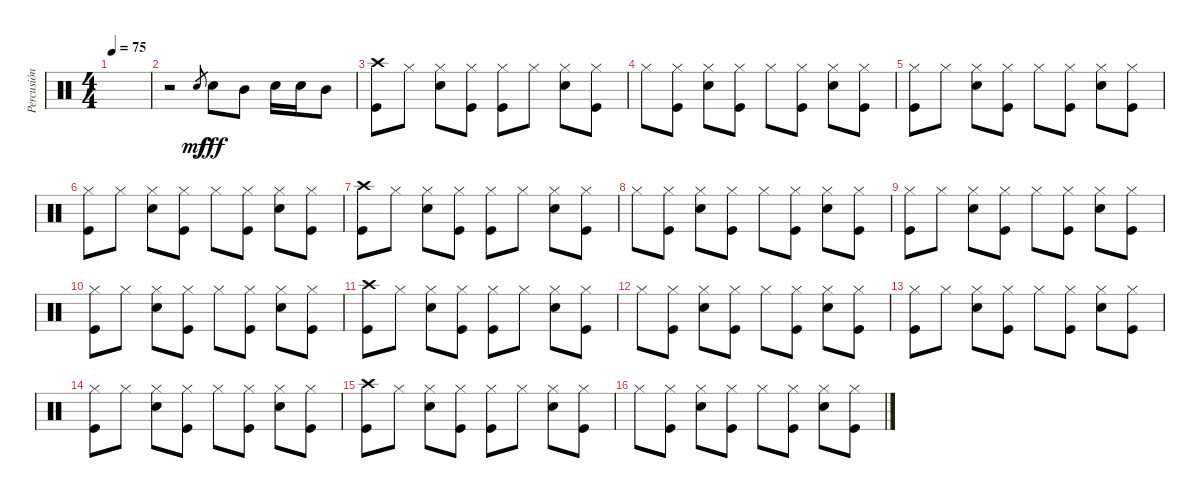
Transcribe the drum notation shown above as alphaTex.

\track ("Percusión" "Percusión") {instrument percussion}
\staff {score}
\articulation defaults
\ts (4 4)
\tempo 75
\clef neutral
\ks c
|
r.2 "Snare (hit) 2"{h}.8{gr dy mf} "Snare (hit) 2".8{dy fff} "Mid Tom (hit)".8 "Snare (hit) 2".16 "Snare (hit) 2".16 "Mid Tom (hit)".8 |
("Crash high (hit)" "Kick (hit)").8 "Hi-Hat (closed)".8 ("Hi-Hat (closed)" "Snare (hit) 2").8 ("Hi-Hat (closed)" "Kick (hit)").8 ("Hi-Hat (closed)" "Kick (hit)").8 "Hi-Hat (closed)".8 ("Hi-Hat (closed)" "Snare (hit) 2").8 ("Hi-Hat (closed)" "Kick (hit)").8 |
"Hi-Hat (closed)".8 ("Hi-Hat (closed)" "Kick (hit)").8 ("Hi-Hat (closed)" "Snare (hit) 2").8 ("Hi-Hat (closed)" "Kick (hit)").8 "Hi-Hat (closed)".8 ("Hi-Hat (closed)" "Kick (hit)").8 ("Hi-Hat (closed)" "Snare (hit) 2").8 ("Hi-Hat (closed)" "Kick (hit)").8 |
("Hi-Hat (closed)" "Kick (hit)").8 "Hi-Hat (closed)".8 ("Hi-Hat (closed)" "Snare (hit) 2").8 ("Hi-Hat (closed)" "Kick (hit)").8 "Hi-Hat (closed)".8 ("Hi-Hat (closed)" "Kick (hit)").8 ("Hi-Hat (closed)" "Snare (hit) 2").8 ("Hi-Hat (closed)" "Kick (hit)").8 |
("Hi-Hat (closed)" "Kick (hit)").8 "Hi-Hat (closed)".8 ("Hi-Hat (closed)" "Snare (hit) 2").8 ("Hi-Hat (closed)" "Kick (hit)").8 "Hi-Hat (closed)".8 ("Hi-Hat (closed)" "Kick (hit)").8 ("Hi-Hat (closed)" "Snare (hit) 2").8 ("Hi-Hat (closed)" "Kick (hit)").8 |
("Crash high (hit)" "Kick (hit)").8 "Hi-Hat (closed)".8 ("Hi-Hat (closed)" "Snare (hit) 2").8 ("Hi-Hat (closed)" "Kick (hit)").8 ("Hi-Hat (closed)" "Kick (hit)").8 "Hi-Hat (closed)".8 ("Hi-Hat (closed)" "Snare (hit) 2").8 ("Hi-Hat (closed)" "Kick (hit)").8 |
"Hi-Hat (closed)".8 ("Hi-Hat (closed)" "Kick (hit)").8 ("Hi-Hat (closed)" "Snare (hit) 2").8 ("Hi-Hat (closed)" "Kick (hit)").8 "Hi-Hat (closed)".8 ("Hi-Hat (closed)" "Kick (hit)").8 ("Hi-Hat (closed)" "Snare (hit) 2").8 ("Hi-Hat (closed)" "Kick (hit)").8 |
("Hi-Hat (closed)" "Kick (hit)").8 "Hi-Hat (closed)".8 ("Hi-Hat (closed)" "Snare (hit) 2").8 ("Hi-Hat (closed)" "Kick (hit)").8 "Hi-Hat (closed)".8 ("Hi-Hat (closed)" "Kick (hit)").8 ("Hi-Hat (closed)" "Snare (hit) 2").8 ("Hi-Hat (closed)" "Kick (hit)").8 |
("Hi-Hat (closed)" "Kick (hit)").8 "Hi-Hat (closed)".8 ("Hi-Hat (closed)" "Snare (hit) 2").8 ("Hi-Hat (closed)" "Kick (hit)").8 "Hi-Hat (closed)".8 ("Hi-Hat (closed)" "Kick (hit)").8 ("Hi-Hat (closed)" "Snare (hit) 2").8 ("Hi-Hat (closed)" "Kick (hit)").8 |
("Crash high (hit)" "Kick (hit)").8 "Hi-Hat (closed)".8 ("Hi-Hat (closed)" "Snare (hit) 2").8 ("Hi-Hat (closed)" "Kick (hit)").8 ("Hi-Hat (closed)" "Kick (hit)").8 "Hi-Hat (closed)".8 ("Hi-Hat (closed)" "Snare (hit) 2").8 ("Hi-Hat (closed)" "Kick (hit)").8 |
"Hi-Hat (closed)".8 ("Hi-Hat (closed)" "Kick (hit)").8 ("Hi-Hat (closed)" "Snare (hit) 2").8 ("Hi-Hat (closed)" "Kick (hit)").8 "Hi-Hat (closed)".8 ("Hi-Hat (closed)" "Kick (hit)").8 ("Hi-Hat (closed)" "Snare (hit) 2").8 ("Hi-Hat (closed)" "Kick (hit)").8 |
("Hi-Hat (closed)" "Kick (hit)").8 "Hi-Hat (closed)".8 ("Hi-Hat (closed)" "Snare (hit) 2").8 ("Hi-Hat (closed)" "Kick (hit)").8 "Hi-Hat (closed)".8 ("Hi-Hat (closed)" "Kick (hit)").8 ("Hi-Hat (closed)" "Snare (hit) 2").8 ("Hi-Hat (closed)" "Kick (hit)").8 |
("Hi-Hat (closed)" "Kick (hit)").8 "Hi-Hat (closed)".8 ("Hi-Hat (closed)" "Snare (hit) 2").8 ("Hi-Hat (closed)" "Kick (hit)").8 "Hi-Hat (closed)".8 ("Hi-Hat (closed)" "Kick (hit)").8 ("Hi-Hat (closed)" "Snare (hit) 2").8 ("Hi-Hat (closed)" "Kick (hit)").8 |
("Crash high (hit)" "Kick (hit)").8 "Hi-Hat (closed)".8 ("Hi-Hat (closed)" "Snare (hit) 2").8 ("Hi-Hat (closed)" "Kick (hit)").8 ("Hi-Hat (closed)" "Kick (hit)").8 "Hi-Hat (closed)".8 ("Hi-Hat (closed)" "Snare (hit) 2").8 ("Hi-Hat (closed)" "Kick (hit)").8 |
"Hi-Hat (closed)".8 ("Hi-Hat (closed)" "Kick (hit)").8 ("Hi-Hat (closed)" "Snare (hit) 2").8 ("Hi-Hat (closed)" "Kick (hit)").8 "Hi-Hat (closed)".8 ("Hi-Hat (closed)" "Kick (hit)").8 ("Hi-Hat (closed)" "Snare (hit) 2").8 ("Hi-Hat (closed)" "Kick (hit)").8
